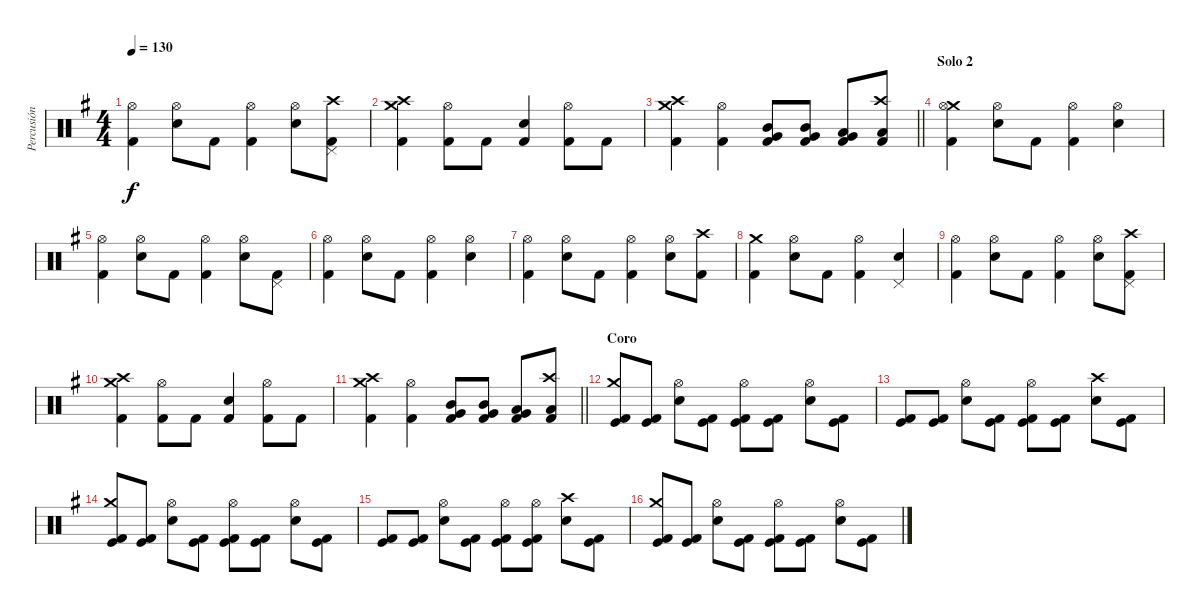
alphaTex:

\track ("Percusión" "Percusión") {instrument percussion}
\staff {score}
\articulation defaults
\ts (4 4)
\tempo 130
\clef neutral
\ks g
("Hi-Hat (open)" "Kick (hit) 2").4{dy f} ("Hi-Hat (open)" "Electric Snare (hit)").8 "Kick (hit) 2".8 ("Hi-Hat (open)" "Kick (hit) 2").4 ("Hi-Hat (open)" "Electric Snare (hit)").8 ("Crash high (hit)" "Pedal Hi-Hat (hit)" "Kick (hit) 2").8 |
("Crash medium (hit)" "Crash high (hit)" "Kick (hit) 2").4 ("Hi-Hat (open)" "Kick (hit) 2").8 "Kick (hit) 2".8 ("Electric Snare (hit)" "Kick (hit) 2").4 ("Hi-Hat (open)" "Kick (hit) 2").8 "Kick (hit) 2".8 |
\barLineRight lightlight
("Crash medium (hit)" "Crash high (hit)" "Kick (hit) 2").4 ("Hi-Hat (open)" "Kick (hit) 2").4 ("Mid Tom (hit)" "Very Low Tom (hit)" "Kick (hit) 2").8 ("Mid Tom (hit)" "Very Low Tom (hit)" "Kick (hit) 2").8 ("Low Tom (hit)" "Very Low Tom (hit)" "Kick (hit) 2").8 ("Crash high (hit)" "Low Tom (hit)" "Kick (hit) 2").8 |
\section ("" "Solo 2")
("Crash medium (hit)" "Hi-Hat (open)" "Kick (hit) 2").4 ("Hi-Hat (open)" "Electric Snare (hit)").8 "Kick (hit) 2".8 ("Hi-Hat (open)" "Kick (hit) 2").4 ("Hi-Hat (open)" "Electric Snare (hit)").4 |
("Hi-Hat (open)" "Kick (hit) 2").4 ("Hi-Hat (open)" "Electric Snare (hit)").8 "Kick (hit) 2".8 ("Hi-Hat (open)" "Kick (hit) 2").4 ("Hi-Hat (open)" "Electric Snare (hit)").8 ("Pedal Hi-Hat (hit)" "Kick (hit) 2").8 |
("Hi-Hat (open)" "Kick (hit) 2").4 ("Hi-Hat (open)" "Electric Snare (hit)").8 "Kick (hit) 2".8 ("Hi-Hat (open)" "Kick (hit) 2").4 ("Hi-Hat (open)" "Electric Snare (hit)").4 |
("Hi-Hat (open)" "Kick (hit) 2").4 ("Hi-Hat (open)" "Electric Snare (hit)").8 "Kick (hit) 2".8 ("Hi-Hat (open)" "Kick (hit) 2").4 ("Hi-Hat (open)" "Electric Snare (hit)").8 ("Crash high (hit)" "Kick (hit) 2").8 |
("Crash medium (hit)" "Kick (hit) 2").4 ("Hi-Hat (open)" "Electric Snare (hit)").8 "Kick (hit) 2".8 ("Hi-Hat (open)" "Kick (hit) 2").4 ("Pedal Hi-Hat (hit)" "Electric Snare (hit)").4 |
("Hi-Hat (open)" "Kick (hit) 2").4 ("Hi-Hat (open)" "Electric Snare (hit)").8 "Kick (hit) 2".8 ("Hi-Hat (open)" "Kick (hit) 2").4 ("Hi-Hat (open)" "Electric Snare (hit)").8 ("Crash high (hit)" "Pedal Hi-Hat (hit)" "Kick (hit) 2").8 |
("Crash medium (hit)" "Crash high (hit)" "Kick (hit) 2").4 ("Hi-Hat (open)" "Kick (hit) 2").8 "Kick (hit) 2".8 ("Electric Snare (hit)" "Kick (hit) 2").4 ("Hi-Hat (open)" "Kick (hit) 2").8 "Kick (hit) 2".8 |
\barLineRight lightlight
("Crash medium (hit)" "Crash high (hit)" "Kick (hit) 2").4 ("Hi-Hat (open)" "Kick (hit) 2").4 ("Mid Tom (hit)" "Very Low Tom (hit)" "Kick (hit) 2").8 ("Mid Tom (hit)" "Very Low Tom (hit)" "Kick (hit) 2").8 ("Low Tom (hit)" "Very Low Tom (hit)" "Kick (hit) 2").8 ("Crash high (hit)" "Low Tom (hit)" "Kick (hit) 2").8 |
\section ("" "Coro")
("Crash medium (hit)" "Kick (hit)" "Kick (hit) 2").8 ("Kick (hit)" "Kick (hit) 2").8 ("Hi-Hat (open)" "Electric Snare (hit)").8 ("Kick (hit)" "Kick (hit) 2").8 ("Hi-Hat (open)" "Kick (hit)" "Kick (hit) 2").8 ("Kick (hit)" "Kick (hit) 2").8 ("Hi-Hat (open)" "Electric Snare (hit)").8 ("Kick (hit)" "Kick (hit) 2").8 |
("Kick (hit)" "Kick (hit) 2").8 ("Kick (hit)" "Kick (hit) 2").8 ("Hi-Hat (open)" "Electric Snare (hit)").8 ("Kick (hit)" "Kick (hit) 2").8 ("Hi-Hat (open)" "Kick (hit)" "Kick (hit) 2").8 ("Kick (hit)" "Kick (hit) 2").8 ("Crash high (hit)" "Electric Snare (hit)").8 ("Kick (hit)" "Kick (hit) 2").8 |
("Crash medium (hit)" "Kick (hit)" "Kick (hit) 2").8 ("Kick (hit)" "Kick (hit) 2").8 ("Hi-Hat (open)" "Electric Snare (hit)").8 ("Kick (hit)" "Kick (hit) 2").8 ("Hi-Hat (open)" "Kick (hit)" "Kick (hit) 2").8 ("Kick (hit)" "Kick (hit) 2").8 ("Hi-Hat (open)" "Electric Snare (hit)").8 ("Kick (hit)" "Kick (hit) 2").8 |
("Kick (hit)" "Kick (hit) 2").8 ("Kick (hit)" "Kick (hit) 2").8 ("Hi-Hat (open)" "Electric Snare (hit)").8 ("Kick (hit)" "Kick (hit) 2").8 ("Hi-Hat (open)" "Kick (hit)" "Kick (hit) 2").8 ("Hi-Hat (open)" "Kick (hit)" "Kick (hit) 2").8 ("Crash high (hit)" "Electric Snare (hit)").8 ("Kick (hit)" "Kick (hit) 2").8 |
("Crash medium (hit)" "Kick (hit)" "Kick (hit) 2").8 ("Kick (hit)" "Kick (hit) 2").8 ("Hi-Hat (open)" "Electric Snare (hit)").8 ("Kick (hit)" "Kick (hit) 2").8 ("Hi-Hat (open)" "Kick (hit)" "Kick (hit) 2").8 ("Kick (hit)" "Kick (hit) 2").8 ("Hi-Hat (open)" "Electric Snare (hit)").8 ("Kick (hit)" "Kick (hit) 2").8
